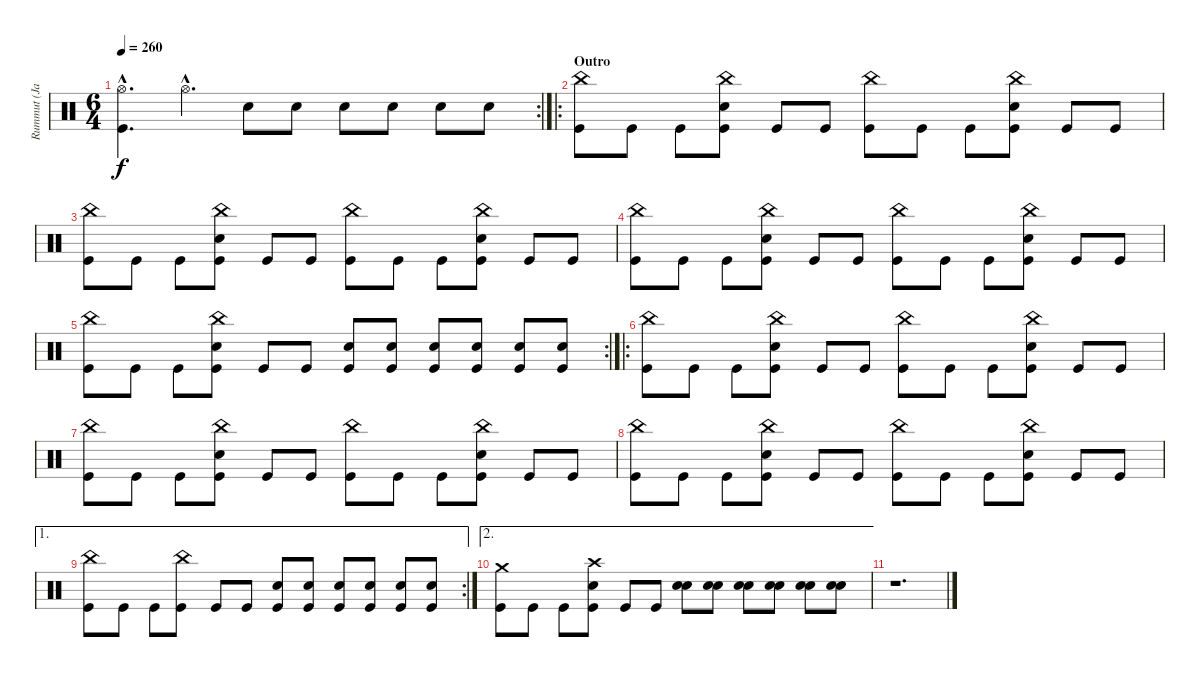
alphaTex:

\track ("Rummut (Janne)" "Rummut (Ja") {instrument percussion}
\staff {score}
\articulation defaults
\rc 2
\ts (6 4)
\tempo 260
\clef neutral
\ks c
("Hi-Hat (open)"{hac} "Kick (hit)"{hac}).4{d dy f} "Hi-Hat (open)"{hac}.4{d} "Snare (hit) 2".8 "Snare (hit) 2".8 "Snare (hit) 2".8 "Snare (hit) 2".8 "Snare (hit) 2".8 "Snare (hit) 2".8 |
\ro
\section ("" "Outro")
("China (hit)" "Kick (hit)").8 "Kick (hit)".8 "Kick (hit)".8 ("China (hit)" "Snare (hit) 2" "Kick (hit)").8 "Kick (hit)".8 "Kick (hit)".8 ("China (hit)" "Kick (hit)").8 "Kick (hit)".8 "Kick (hit)".8 ("China (hit)" "Snare (hit) 2" "Kick (hit)").8 "Kick (hit)".8 "Kick (hit)".8 |
("China (hit)" "Kick (hit)").8 "Kick (hit)".8 "Kick (hit)".8 ("China (hit)" "Snare (hit) 2" "Kick (hit)").8 "Kick (hit)".8 "Kick (hit)".8 ("China (hit)" "Kick (hit)").8 "Kick (hit)".8 "Kick (hit)".8 ("China (hit)" "Snare (hit) 2" "Kick (hit)").8 "Kick (hit)".8 "Kick (hit)".8 |
("China (hit)" "Kick (hit)").8 "Kick (hit)".8 "Kick (hit)".8 ("China (hit)" "Snare (hit) 2" "Kick (hit)").8 "Kick (hit)".8 "Kick (hit)".8 ("China (hit)" "Kick (hit)").8 "Kick (hit)".8 "Kick (hit)".8 ("China (hit)" "Snare (hit) 2" "Kick (hit)").8 "Kick (hit)".8 "Kick (hit)".8 |
\rc 2
("China (hit)" "Kick (hit)").8 "Kick (hit)".8 "Kick (hit)".8 ("China (hit)" "Snare (hit) 2" "Kick (hit)").8 "Kick (hit)".8 "Kick (hit)".8 ("Snare (hit) 2" "Kick (hit)").8 ("Snare (hit) 2" "Kick (hit)").8 ("Snare (hit) 2" "Kick (hit)").8 ("Snare (hit) 2" "Kick (hit)").8 ("Snare (hit) 2" "Kick (hit)").8 ("Snare (hit) 2" "Kick (hit)").8 |
\ro
("China (hit)" "Kick (hit)").8 "Kick (hit)".8 "Kick (hit)".8 ("China (hit)" "Snare (hit) 2" "Kick (hit)").8 "Kick (hit)".8 "Kick (hit)".8 ("China (hit)" "Kick (hit)").8 "Kick (hit)".8 "Kick (hit)".8 ("China (hit)" "Snare (hit) 2" "Kick (hit)").8 "Kick (hit)".8 "Kick (hit)".8 |
("China (hit)" "Kick (hit)").8 "Kick (hit)".8 "Kick (hit)".8 ("China (hit)" "Snare (hit) 2" "Kick (hit)").8 "Kick (hit)".8 "Kick (hit)".8 ("China (hit)" "Kick (hit)").8 "Kick (hit)".8 "Kick (hit)".8 ("China (hit)" "Snare (hit) 2" "Kick (hit)").8 "Kick (hit)".8 "Kick (hit)".8 |
("China (hit)" "Kick (hit)").8 "Kick (hit)".8 "Kick (hit)".8 ("China (hit)" "Snare (hit) 2" "Kick (hit)").8 "Kick (hit)".8 "Kick (hit)".8 ("China (hit)" "Kick (hit)").8 "Kick (hit)".8 "Kick (hit)".8 ("China (hit)" "Snare (hit) 2" "Kick (hit)").8 "Kick (hit)".8 "Kick (hit)".8 |
\ae 1
\rc 2
("China (hit)" "Kick (hit)").8 "Kick (hit)".8 "Kick (hit)".8 ("China (hit)" "Kick (hit)").8 "Kick (hit)".8 "Kick (hit)".8 ("Snare (hit) 2" "Kick (hit)").8 ("Snare (hit) 2" "Kick (hit)").8 ("Snare (hit) 2" "Kick (hit)").8 ("Snare (hit) 2" "Kick (hit)").8 ("Snare (hit) 2" "Kick (hit)").8 ("Snare (hit) 2" "Kick (hit)").8 |
\ae 2
("Crash medium (hit)" "Kick (hit)").8 "Kick (hit)".8 "Kick (hit)".8 ("Crash high (hit)" "Snare (hit) 2" "Kick (hit)").8 "Kick (hit)".8 "Kick (hit)".8 ("Snare (hit) 2" "Snare (hit) 2").8 ("Snare (hit) 2" "Snare (hit) 2").8 ("Snare (hit) 2" "Snare (hit) 2").8 ("Snare (hit) 2" "Snare (hit) 2").8 ("Snare (hit) 2" "Snare (hit) 2").8 ("Snare (hit) 2" "Snare (hit) 2").8 |
r.1{d}
